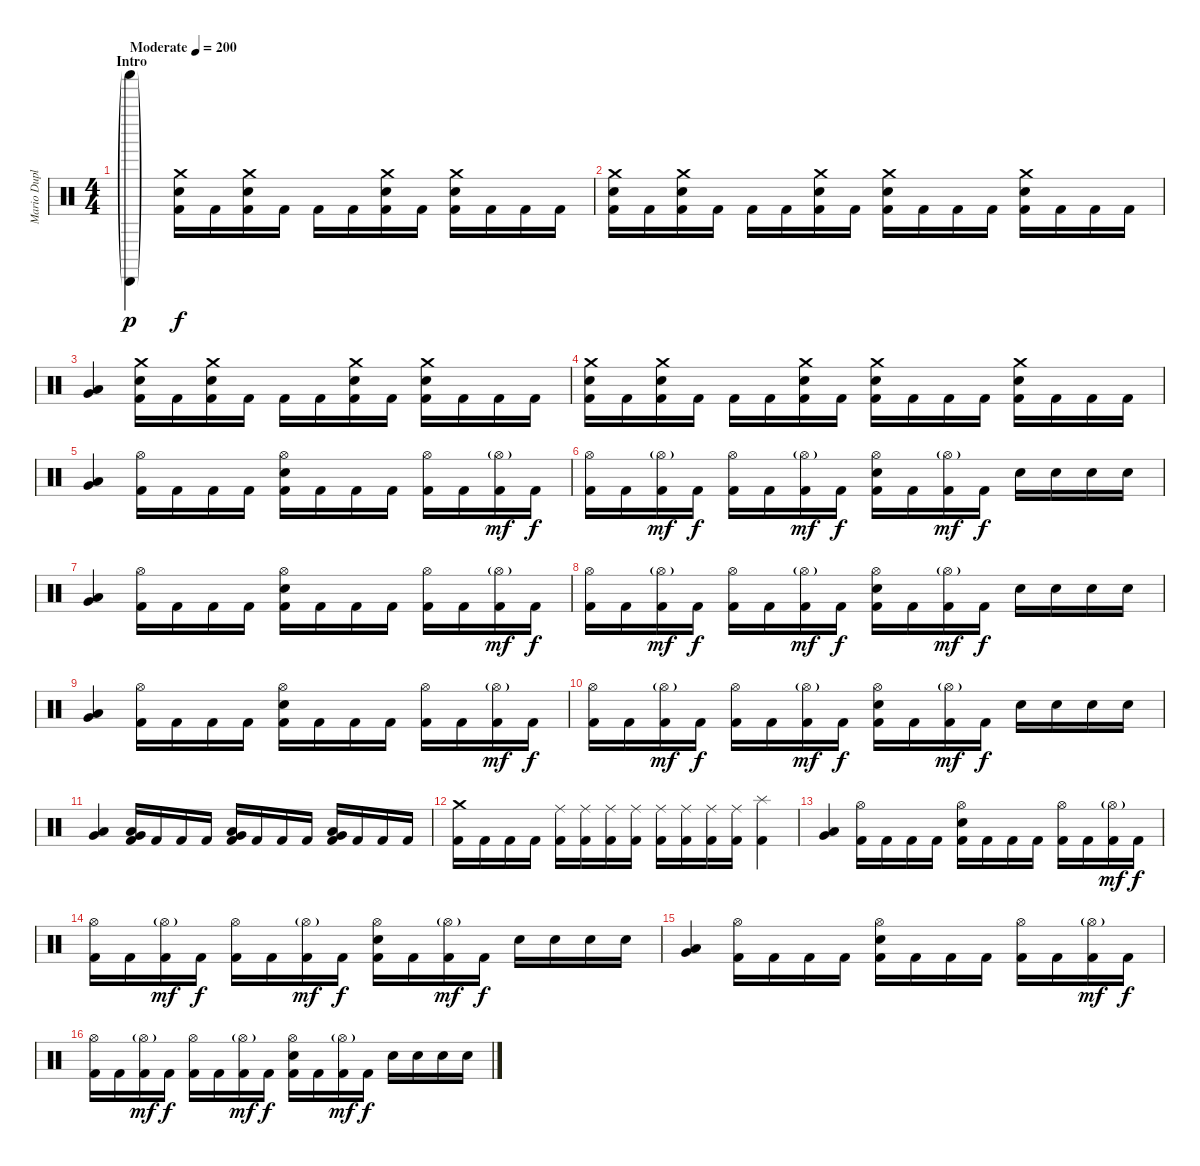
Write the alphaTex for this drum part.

\track ("Mario Duplantier" "Mario Dupl") {instrument percussion}
\staff {score}
\articulation defaults
\ts (4 4)
\section ("" "Intro")
\tempo (200 "Moderate")
\clef neutral
\ks c
("Cabasa (hit)"{g} "Shaker (hit)"{g}).4{dy p} ("Crash medium (hit)" "Electric Snare (hit)" "Kick (hit) 2").16{dy f} "Kick (hit) 2".16 ("Crash medium (hit)" "Electric Snare (hit)" "Kick (hit) 2").16 "Kick (hit) 2".16 "Kick (hit) 2".16 "Kick (hit) 2".16 ("Crash medium (hit)" "Electric Snare (hit)" "Kick (hit) 2").16 "Kick (hit) 2".16 ("Crash medium (hit)" "Electric Snare (hit)" "Kick (hit) 2").16 "Kick (hit) 2".16 "Kick (hit) 2".16 "Kick (hit) 2".16 |
("Crash medium (hit)" "Electric Snare (hit)" "Kick (hit) 2").16 "Kick (hit) 2".16 ("Crash medium (hit)" "Electric Snare (hit)" "Kick (hit) 2").16 "Kick (hit) 2".16 "Kick (hit) 2".16 "Kick (hit) 2".16 ("Crash medium (hit)" "Electric Snare (hit)" "Kick (hit) 2").16 "Kick (hit) 2".16 ("Crash medium (hit)" "Electric Snare (hit)" "Kick (hit) 2").16 "Kick (hit) 2".16 "Kick (hit) 2".16 "Kick (hit) 2".16 ("Crash medium (hit)" "Electric Snare (hit)" "Kick (hit) 2").16 "Kick (hit) 2".16 "Kick (hit) 2".16 "Kick (hit) 2".16 |
("Very Low Tom (hit)" "Low Floor Tom (hit)").4 ("Crash medium (hit)" "Electric Snare (hit)" "Kick (hit) 2").16 "Kick (hit) 2".16 ("Crash medium (hit)" "Electric Snare (hit)" "Kick (hit) 2").16 "Kick (hit) 2".16 "Kick (hit) 2".16 "Kick (hit) 2".16 ("Crash medium (hit)" "Electric Snare (hit)" "Kick (hit) 2").16 "Kick (hit) 2".16 ("Crash medium (hit)" "Electric Snare (hit)" "Kick (hit) 2").16 "Kick (hit) 2".16 "Kick (hit) 2".16 "Kick (hit) 2".16 |
("Crash medium (hit)" "Electric Snare (hit)" "Kick (hit) 2").16 "Kick (hit) 2".16 ("Crash medium (hit)" "Electric Snare (hit)" "Kick (hit) 2").16 "Kick (hit) 2".16 "Kick (hit) 2".16 "Kick (hit) 2".16 ("Crash medium (hit)" "Electric Snare (hit)" "Kick (hit) 2").16 "Kick (hit) 2".16 ("Crash medium (hit)" "Electric Snare (hit)" "Kick (hit) 2").16 "Kick (hit) 2".16 "Kick (hit) 2".16 "Kick (hit) 2".16 ("Crash medium (hit)" "Electric Snare (hit)" "Kick (hit) 2").16 "Kick (hit) 2".16 "Kick (hit) 2".16 "Kick (hit) 2".16 |
("Low Floor Tom (hit)" "Very Low Tom (hit)").4 ("Hi-Hat (open)" "Kick (hit) 2").16 "Kick (hit) 2".16 "Kick (hit) 2".16 "Kick (hit) 2".16 ("Hi-Hat (open)" "Electric Snare (hit)" "Kick (hit) 2").16 "Kick (hit) 2".16 "Kick (hit) 2".16 "Kick (hit) 2".16 ("Hi-Hat (open)" "Kick (hit) 2").16 "Kick (hit) 2".16 ("Hi-Hat (open)"{g} "Kick (hit) 2").16{dy mf} "Kick (hit) 2".16{dy f} |
("Hi-Hat (open)" "Kick (hit) 2").16 "Kick (hit) 2".16 ("Hi-Hat (open)"{g} "Kick (hit) 2").16{dy mf} "Kick (hit) 2".16{dy f} ("Hi-Hat (open)" "Kick (hit) 2").16 "Kick (hit) 2".16 ("Hi-Hat (open)"{g} "Kick (hit) 2").16{dy mf} "Kick (hit) 2".16{dy f} ("Hi-Hat (open)" "Electric Snare (hit)" "Kick (hit) 2").16 "Kick (hit) 2".16 ("Hi-Hat (open)"{g} "Kick (hit) 2").16{dy mf} "Kick (hit) 2".16{dy f} "Electric Snare (hit)".16 "Electric Snare (hit)".16 "Electric Snare (hit)".16 "Electric Snare (hit)".16 |
("Low Floor Tom (hit)" "Very Low Tom (hit)").4 ("Hi-Hat (open)" "Kick (hit) 2").16 "Kick (hit) 2".16 "Kick (hit) 2".16 "Kick (hit) 2".16 ("Hi-Hat (open)" "Electric Snare (hit)" "Kick (hit) 2").16 "Kick (hit) 2".16 "Kick (hit) 2".16 "Kick (hit) 2".16 ("Hi-Hat (open)" "Kick (hit) 2").16 "Kick (hit) 2".16 ("Hi-Hat (open)"{g} "Kick (hit) 2").16{dy mf} "Kick (hit) 2".16{dy f} |
("Hi-Hat (open)" "Kick (hit) 2").16 "Kick (hit) 2".16 ("Hi-Hat (open)"{g} "Kick (hit) 2").16{dy mf} "Kick (hit) 2".16{dy f} ("Hi-Hat (open)" "Kick (hit) 2").16 "Kick (hit) 2".16 ("Hi-Hat (open)"{g} "Kick (hit) 2").16{dy mf} "Kick (hit) 2".16{dy f} ("Hi-Hat (open)" "Electric Snare (hit)" "Kick (hit) 2").16 "Kick (hit) 2".16 ("Hi-Hat (open)"{g} "Kick (hit) 2").16{dy mf} "Kick (hit) 2".16{dy f} "Electric Snare (hit)".16 "Electric Snare (hit)".16 "Electric Snare (hit)".16 "Electric Snare (hit)".16 |
("Low Floor Tom (hit)" "Very Low Tom (hit)").4 ("Hi-Hat (open)" "Kick (hit) 2").16 "Kick (hit) 2".16 "Kick (hit) 2".16 "Kick (hit) 2".16 ("Hi-Hat (open)" "Electric Snare (hit)" "Kick (hit) 2").16 "Kick (hit) 2".16 "Kick (hit) 2".16 "Kick (hit) 2".16 ("Hi-Hat (open)" "Kick (hit) 2").16 "Kick (hit) 2".16 ("Hi-Hat (open)"{g} "Kick (hit) 2").16{dy mf} "Kick (hit) 2".16{dy f} |
("Hi-Hat (open)" "Kick (hit) 2").16 "Kick (hit) 2".16 ("Hi-Hat (open)"{g} "Kick (hit) 2").16{dy mf} "Kick (hit) 2".16{dy f} ("Hi-Hat (open)" "Kick (hit) 2").16 "Kick (hit) 2".16 ("Hi-Hat (open)"{g} "Kick (hit) 2").16{dy mf} "Kick (hit) 2".16{dy f} ("Hi-Hat (open)" "Electric Snare (hit)" "Kick (hit) 2").16 "Kick (hit) 2".16 ("Hi-Hat (open)"{g} "Kick (hit) 2").16{dy mf} "Kick (hit) 2".16{dy f} "Electric Snare (hit)".16 "Electric Snare (hit)".16 "Electric Snare (hit)".16 "Electric Snare (hit)".16 |
("Low Floor Tom (hit)" "Very Low Tom (hit)").4 ("Very Low Tom (hit)" "Low Floor Tom (hit)" "Kick (hit) 2").16 "Kick (hit) 2".16 "Kick (hit) 2".16 "Kick (hit) 2".16 ("Very Low Tom (hit)" "Low Floor Tom (hit)" "Kick (hit) 2").16 "Kick (hit) 2".16 "Kick (hit) 2".16 "Kick (hit) 2".16 ("Very Low Tom (hit)" "Low Floor Tom (hit)" "Kick (hit) 2").16 "Kick (hit) 2".16 "Kick (hit) 2".16 "Kick (hit) 2".16 |
("Crash medium (hit)" "Kick (hit) 2").16 "Kick (hit) 2".16 "Kick (hit) 2".16 "Kick (hit) 2".16 ("Ride (middle)" "Kick (hit) 2").16 ("Ride (middle)" "Kick (hit) 2").16 ("Ride (middle)" "Kick (hit) 2").16 ("Ride (middle)" "Kick (hit) 2").16 ("Ride (middle)" "Kick (hit) 2").16 ("Ride (middle)" "Kick (hit) 2").16 ("Ride (middle)" "Kick (hit) 2").16 ("Ride (middle)" "Kick (hit) 2").16 ("Splash (hit)" "Kick (hit) 2").4 |
("Low Floor Tom (hit)" "Very Low Tom (hit)").4 ("Hi-Hat (open)" "Kick (hit) 2").16 "Kick (hit) 2".16 "Kick (hit) 2".16 "Kick (hit) 2".16 ("Hi-Hat (open)" "Electric Snare (hit)" "Kick (hit) 2").16 "Kick (hit) 2".16 "Kick (hit) 2".16 "Kick (hit) 2".16 ("Hi-Hat (open)" "Kick (hit) 2").16 "Kick (hit) 2".16 ("Hi-Hat (open)"{g} "Kick (hit) 2").16{dy mf} "Kick (hit) 2".16{dy f} |
("Hi-Hat (open)" "Kick (hit) 2").16 "Kick (hit) 2".16 ("Hi-Hat (open)"{g} "Kick (hit) 2").16{dy mf} "Kick (hit) 2".16{dy f} ("Hi-Hat (open)" "Kick (hit) 2").16 "Kick (hit) 2".16 ("Hi-Hat (open)"{g} "Kick (hit) 2").16{dy mf} "Kick (hit) 2".16{dy f} ("Hi-Hat (open)" "Electric Snare (hit)" "Kick (hit) 2").16 "Kick (hit) 2".16 ("Hi-Hat (open)"{g} "Kick (hit) 2").16{dy mf} "Kick (hit) 2".16{dy f} "Electric Snare (hit)".16 "Electric Snare (hit)".16 "Electric Snare (hit)".16 "Electric Snare (hit)".16 |
("Low Floor Tom (hit)" "Very Low Tom (hit)").4 ("Hi-Hat (open)" "Kick (hit) 2").16 "Kick (hit) 2".16 "Kick (hit) 2".16 "Kick (hit) 2".16 ("Hi-Hat (open)" "Electric Snare (hit)" "Kick (hit) 2").16 "Kick (hit) 2".16 "Kick (hit) 2".16 "Kick (hit) 2".16 ("Hi-Hat (open)" "Kick (hit) 2").16 "Kick (hit) 2".16 ("Hi-Hat (open)"{g} "Kick (hit) 2").16{dy mf} "Kick (hit) 2".16{dy f} |
("Hi-Hat (open)" "Kick (hit) 2").16 "Kick (hit) 2".16 ("Hi-Hat (open)"{g} "Kick (hit) 2").16{dy mf} "Kick (hit) 2".16{dy f} ("Hi-Hat (open)" "Kick (hit) 2").16 "Kick (hit) 2".16 ("Hi-Hat (open)"{g} "Kick (hit) 2").16{dy mf} "Kick (hit) 2".16{dy f} ("Hi-Hat (open)" "Electric Snare (hit)" "Kick (hit) 2").16 "Kick (hit) 2".16 ("Hi-Hat (open)"{g} "Kick (hit) 2").16{dy mf} "Kick (hit) 2".16{dy f} "Electric Snare (hit)".16 "Electric Snare (hit)".16 "Electric Snare (hit)".16 "Electric Snare (hit)".16
